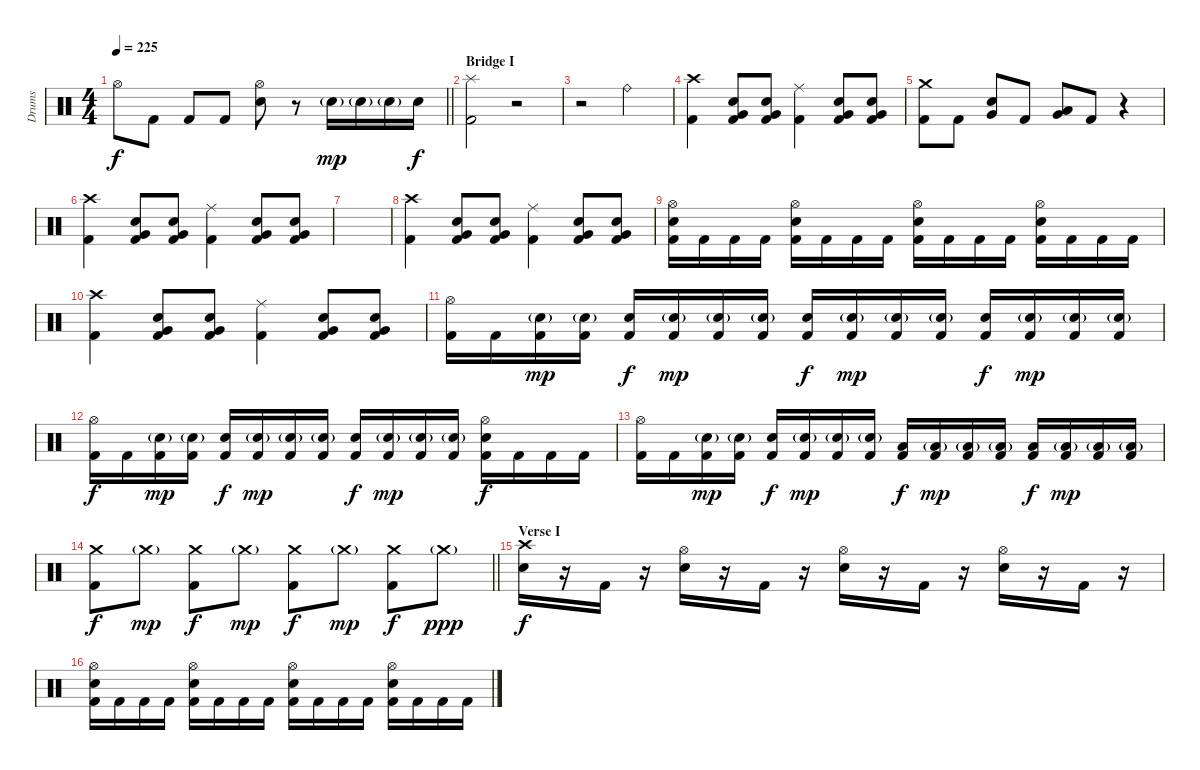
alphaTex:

\track ("Drums" "Drums") {instrument percussion}
\staff {score}
\articulation defaults
\ts (4 4)
\tempo 225
\clef neutral
\barLineRight lightlight
\ks c "Hi-Hat (open)".8{dy f} "Kick (hit) 2".8 "Kick (hit) 2".8 "Kick (hit) 2".8
("Hi-Hat (open)" "Electric Snare (hit)").8 r.8 "Electric Snare (hit)"{g}.16{dy mp} "Electric Snare (hit)"{g}.16 "Electric Snare (hit)"{g}.16 "Electric Snare (hit)".16{dy f} |
\section ("" "Bridge I")
("Splash (hit)" "Kick (hit) 2").2 r.2 |
r.2 "Ride (bell)".2 |
("Crash high (hit)" "Kick (hit) 2").4 ("Very Low Tom (hit)" "Electric Snare (hit)" "Kick (hit) 2").8 ("Very Low Tom (hit)" "Electric Snare (hit)" "Kick (hit) 2").8 ("Ride (middle)" "Kick (hit) 2").4 ("Very Low Tom (hit)" "Electric Snare (hit)" "Kick (hit) 2").8 ("Very Low Tom (hit)" "Electric Snare (hit)" "Kick (hit) 2").8 |
("Crash medium (hit)" "Kick (hit) 2").8 "Kick (hit) 2".8 ("Very Low Tom (hit)" "Electric Snare (hit)").8 "Kick (hit) 2".8 ("Very Low Tom (hit)" "Low Tom (hit)").8 "Kick (hit) 2".8 r.4 |
("Crash high (hit)" "Kick (hit) 2").4 ("Very Low Tom (hit)" "Electric Snare (hit)" "Kick (hit) 2").8 ("Very Low Tom (hit)" "Electric Snare (hit)" "Kick (hit) 2").8 ("Ride (middle)" "Kick (hit) 2").4 ("Very Low Tom (hit)" "Electric Snare (hit)" "Kick (hit) 2").8 ("Very Low Tom (hit)" "Electric Snare (hit)" "Kick (hit) 2").8 |
|
("Crash high (hit)" "Kick (hit) 2").4 ("Very Low Tom (hit)" "Electric Snare (hit)" "Kick (hit) 2").8 ("Very Low Tom (hit)" "Electric Snare (hit)" "Kick (hit) 2").8 ("Ride (middle)" "Kick (hit) 2").4 ("Very Low Tom (hit)" "Electric Snare (hit)" "Kick (hit) 2").8 ("Very Low Tom (hit)" "Electric Snare (hit)" "Kick (hit) 2").8 |
("Hi-Hat (open)" "Electric Snare (hit)" "Kick (hit) 2").16 "Kick (hit) 2".16 "Kick (hit) 2".16 "Kick (hit) 2".16 ("Hi-Hat (open)" "Electric Snare (hit)" "Kick (hit) 2").16 "Kick (hit) 2".16 "Kick (hit) 2".16 "Kick (hit) 2".16 ("Hi-Hat (open)" "Electric Snare (hit)" "Kick (hit) 2").16 "Kick (hit) 2".16 "Kick (hit) 2".16 "Kick (hit) 2".16 ("Hi-Hat (open)" "Electric Snare (hit)" "Kick (hit) 2").16 "Kick (hit) 2".16 "Kick (hit) 2".16 "Kick (hit) 2".16 |
("Crash high (hit)" "Kick (hit) 2").4 ("Very Low Tom (hit)" "Electric Snare (hit)" "Kick (hit) 2").8 ("Very Low Tom (hit)" "Electric Snare (hit)" "Kick (hit) 2").8 ("Ride (middle)" "Kick (hit) 2").4 ("Very Low Tom (hit)" "Electric Snare (hit)" "Kick (hit) 2").8 ("Very Low Tom (hit)" "Electric Snare (hit)" "Kick (hit) 2").8 |
("Hi-Hat (open)" "Kick (hit) 2").16 "Kick (hit) 2".16 ("Electric Snare (hit)"{g} "Kick (hit) 2").16{dy mp} ("Electric Snare (hit)"{g} "Kick (hit) 2").16 ("Electric Snare (hit)" "Kick (hit) 2").16{dy f} ("Electric Snare (hit)"{g} "Kick (hit) 2").16{dy mp} ("Electric Snare (hit)"{g} "Kick (hit) 2").16 ("Electric Snare (hit)"{g} "Kick (hit) 2").16 ("Electric Snare (hit)" "Kick (hit) 2").16{dy f} ("Electric Snare (hit)"{g} "Kick (hit) 2").16{dy mp} ("Electric Snare (hit)"{g} "Kick (hit) 2").16 ("Electric Snare (hit)"{g} "Kick (hit) 2").16 ("Electric Snare (hit)" "Kick (hit) 2").16{dy f} ("Electric Snare (hit)"{g} "Kick (hit) 2").16{dy mp} ("Electric Snare (hit)"{g} "Kick (hit) 2").16 ("Electric Snare (hit)"{g} "Kick (hit) 2").16 |
("Hi-Hat (open)" "Kick (hit) 2").16{dy f} "Kick (hit) 2".16 ("Electric Snare (hit)"{g} "Kick (hit) 2").16{dy mp} ("Electric Snare (hit)"{g} "Kick (hit) 2").16 ("Electric Snare (hit)" "Kick (hit) 2").16{dy f} ("Electric Snare (hit)"{g} "Kick (hit) 2").16{dy mp} ("Electric Snare (hit)"{g} "Kick (hit) 2").16 ("Electric Snare (hit)"{g} "Kick (hit) 2").16 ("Electric Snare (hit)" "Kick (hit) 2").16{dy f} ("Electric Snare (hit)"{g} "Kick (hit) 2").16{dy mp} ("Electric Snare (hit)"{g} "Kick (hit) 2").16 ("Electric Snare (hit)"{g} "Kick (hit) 2").16 ("Hi-Hat (open)" "Electric Snare (hit)" "Kick (hit) 2").16{dy f} "Kick (hit) 2".16 "Kick (hit) 2".16 "Kick (hit) 2".16 |
("Hi-Hat (open)" "Kick (hit) 2").16 "Kick (hit) 2".16 ("Electric Snare (hit)"{g} "Kick (hit) 2").16{dy mp} ("Electric Snare (hit)"{g} "Kick (hit) 2").16 ("Electric Snare (hit)" "Kick (hit) 2").16{dy f} ("Electric Snare (hit)"{g} "Kick (hit) 2").16{dy mp} ("Electric Snare (hit)"{g} "Kick (hit) 2").16 ("Electric Snare (hit)"{g} "Kick (hit) 2").16 ("Low Tom (hit)" "Kick (hit) 2").16{dy f} ("Low Tom (hit)"{g} "Kick (hit) 2").16{dy mp} ("Low Tom (hit)"{g} "Kick (hit) 2").16 ("Low Tom (hit)"{g} "Kick (hit) 2").16 ("Low Tom (hit)" "Kick (hit) 2").16{dy f} ("Low Tom (hit)"{g} "Kick (hit) 2").16{dy mp} ("Low Tom (hit)"{g} "Kick (hit) 2").16 ("Low Tom (hit)"{g} "Kick (hit) 2").16 |
\barLineRight lightlight
("Crash medium (hit)" "Kick (hit) 2").8{dy f} "Crash medium (hit)"{g}.8{dy mp} ("Crash medium (hit)" "Kick (hit) 2").8{dy f} "Crash medium (hit)"{g}.8{dy mp} ("Crash medium (hit)" "Kick (hit) 2").8{dy f} "Crash medium (hit)"{g}.8{dy mp} ("Crash medium (hit)" "Kick (hit) 2").8{dy f} "Crash medium (hit)"{g}.8{dy ppp} |
\section ("" "Verse I")
("Crash high (hit)" "Electric Snare (hit)").16{dy f} r.16 "Kick (hit) 2".16 r.16 ("Hi-Hat (open)" "Electric Snare (hit)").16 r.16 "Kick (hit) 2".16 r.16 ("Hi-Hat (open)" "Electric Snare (hit)").16 r.16 "Kick (hit) 2".16 r.16 ("Hi-Hat (open)" "Electric Snare (hit)").16 r.16 "Kick (hit) 2".16 r.16 |
("Hi-Hat (open)" "Electric Snare (hit)" "Kick (hit) 2").16 "Kick (hit) 2".16 "Kick (hit) 2".16 "Kick (hit) 2".16 ("Hi-Hat (open)" "Electric Snare (hit)" "Kick (hit) 2").16 "Kick (hit) 2".16 "Kick (hit) 2".16 "Kick (hit) 2".16 ("Hi-Hat (open)" "Electric Snare (hit)" "Kick (hit) 2").16 "Kick (hit) 2".16 "Kick (hit) 2".16 "Kick (hit) 2".16 ("Hi-Hat (open)" "Electric Snare (hit)" "Kick (hit) 2").16 "Kick (hit) 2".16 "Kick (hit) 2".16 "Kick (hit) 2".16
